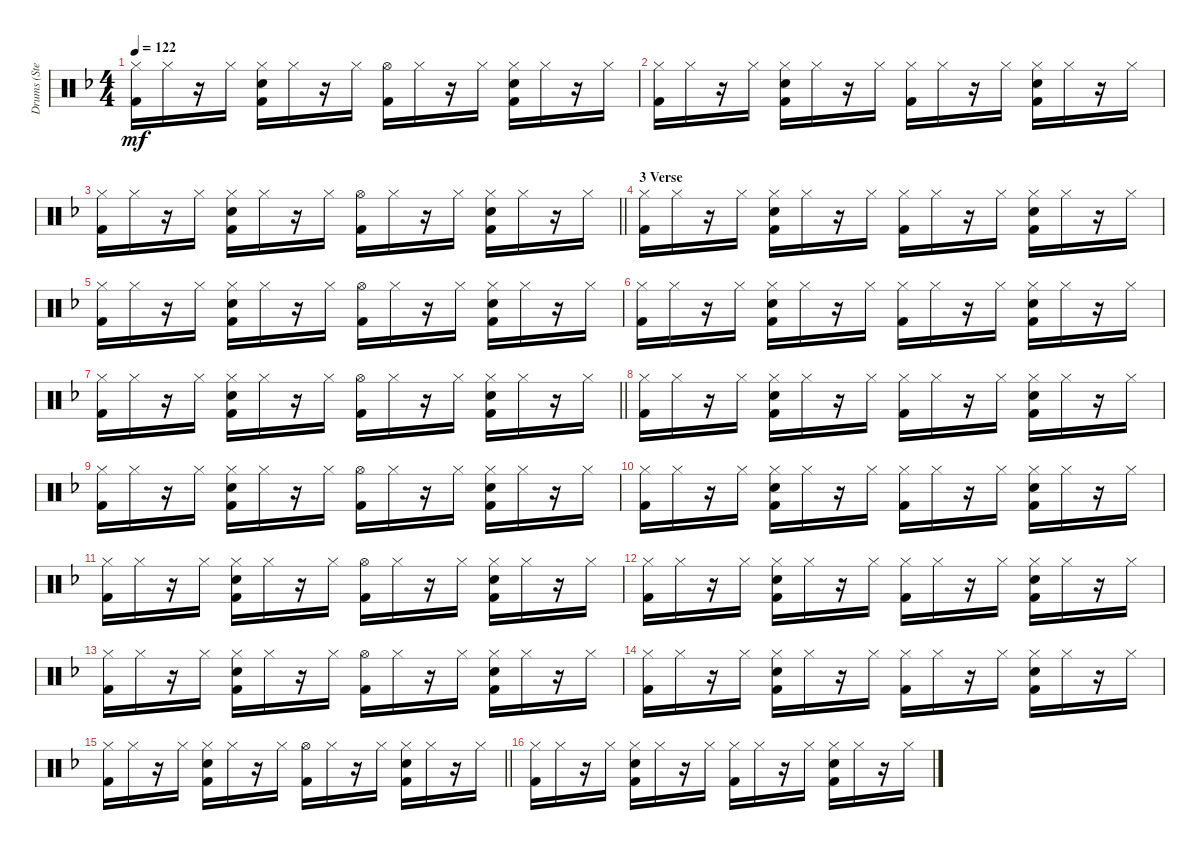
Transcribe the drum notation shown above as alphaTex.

\track ("Drums (Stephen Morris)" "Drums (Ste") {instrument percussion}
\staff {score}
\articulation defaults
\ts (4 4)
\tempo 122
\clef neutral
\ks f
("Kick (hit) 2" "Hi-Hat (closed)").16{dy mf} "Hi-Hat (closed)".16 r.16 "Hi-Hat (closed)".16 ("Hi-Hat (closed)" "Snare (hit) 2" "Kick (hit) 2").16 "Hi-Hat (closed)".16 r.16 "Hi-Hat (closed)".16 ("Kick (hit) 2" "Hi-Hat (open)").16 "Hi-Hat (closed)".16 r.16 "Hi-Hat (closed)".16 ("Hi-Hat (closed)" "Snare (hit) 2" "Kick (hit) 2").16 "Hi-Hat (closed)".16 r.16 "Hi-Hat (closed)".16 |
("Kick (hit) 2" "Hi-Hat (closed)").16 "Hi-Hat (closed)".16 r.16 "Hi-Hat (closed)".16 ("Kick (hit) 2" "Snare (hit) 2" "Hi-Hat (closed)").16 "Hi-Hat (closed)".16 r.16 "Hi-Hat (closed)".16 ("Kick (hit) 2" "Hi-Hat (closed)").16 "Hi-Hat (closed)".16 r.16 "Hi-Hat (closed)".16 ("Hi-Hat (closed)" "Kick (hit) 2" "Snare (hit) 2").16 "Hi-Hat (closed)".16 r.16 "Hi-Hat (closed)".16 |
\barLineRight lightlight
("Kick (hit) 2" "Hi-Hat (closed)").16 "Hi-Hat (closed)".16 r.16 "Hi-Hat (closed)".16 ("Kick (hit) 2" "Snare (hit) 2" "Hi-Hat (closed)").16 "Hi-Hat (closed)".16 r.16 "Hi-Hat (closed)".16 ("Kick (hit) 2" "Hi-Hat (open)").16 "Hi-Hat (closed)".16 r.16 "Hi-Hat (closed)".16 ("Hi-Hat (closed)" "Snare (hit) 2" "Kick (hit) 2").16 "Hi-Hat (closed)".16 r.16 "Hi-Hat (closed)".16 |
\section ("" "3 Verse")
("Hi-Hat (closed)" "Kick (hit) 2").16 "Hi-Hat (closed)".16 r.16 "Hi-Hat (closed)".16 ("Hi-Hat (closed)" "Snare (hit) 2" "Kick (hit) 2").16 "Hi-Hat (closed)".16 r.16 "Hi-Hat (closed)".16 ("Kick (hit) 2" "Hi-Hat (closed)").16 "Hi-Hat (closed)".16 r.16 "Hi-Hat (closed)".16 ("Kick (hit) 2" "Snare (hit) 2" "Hi-Hat (closed)").16 "Hi-Hat (closed)".16 r.16 "Hi-Hat (closed)".16 |
("Hi-Hat (closed)" "Kick (hit) 2").16 "Hi-Hat (closed)".16 r.16 "Hi-Hat (closed)".16 ("Hi-Hat (closed)" "Snare (hit) 2" "Kick (hit) 2").16 "Hi-Hat (closed)".16 r.16 "Hi-Hat (closed)".16 ("Kick (hit) 2" "Hi-Hat (open)").16 "Hi-Hat (closed)".16 r.16 "Hi-Hat (closed)".16 ("Hi-Hat (closed)" "Snare (hit) 2" "Kick (hit) 2").16 "Hi-Hat (closed)".16 r.16 "Hi-Hat (closed)".16 |
("Hi-Hat (closed)" "Kick (hit) 2").16 "Hi-Hat (closed)".16 r.16 "Hi-Hat (closed)".16 ("Hi-Hat (closed)" "Snare (hit) 2" "Kick (hit) 2").16 "Hi-Hat (closed)".16 r.16 "Hi-Hat (closed)".16 ("Kick (hit) 2" "Hi-Hat (closed)").16 "Hi-Hat (closed)".16 r.16 "Hi-Hat (closed)".16 ("Hi-Hat (closed)" "Snare (hit) 2" "Kick (hit) 2").16 "Hi-Hat (closed)".16 r.16 "Hi-Hat (closed)".16 |
\barLineRight lightlight
("Kick (hit) 2" "Hi-Hat (closed)").16 "Hi-Hat (closed)".16 r.16 "Hi-Hat (closed)".16 ("Hi-Hat (closed)" "Snare (hit) 2" "Kick (hit) 2").16 "Hi-Hat (closed)".16 r.16 "Hi-Hat (closed)".16 ("Kick (hit) 2" "Hi-Hat (open)").16 "Hi-Hat (closed)".16 r.16 "Hi-Hat (closed)".16 ("Kick (hit) 2" "Snare (hit) 2" "Hi-Hat (closed)").16 "Hi-Hat (closed)".16 r.16 "Hi-Hat (closed)".16 |
("Kick (hit) 2" "Hi-Hat (closed)").16 "Hi-Hat (closed)".16 r.16 "Hi-Hat (closed)".16 ("Hi-Hat (closed)" "Snare (hit) 2" "Kick (hit) 2").16 "Hi-Hat (closed)".16 r.16 "Hi-Hat (closed)".16 ("Kick (hit) 2" "Hi-Hat (closed)").16 "Hi-Hat (closed)".16 r.16 "Hi-Hat (closed)".16 ("Hi-Hat (closed)" "Snare (hit) 2" "Kick (hit) 2").16 "Hi-Hat (closed)".16 r.16 "Hi-Hat (closed)".16 |
("Kick (hit) 2" "Hi-Hat (closed)").16 "Hi-Hat (closed)".16 r.16 "Hi-Hat (closed)".16 ("Hi-Hat (closed)" "Snare (hit) 2" "Kick (hit) 2").16 "Hi-Hat (closed)".16 r.16 "Hi-Hat (closed)".16 ("Kick (hit) 2" "Hi-Hat (open)").16 "Hi-Hat (closed)".16 r.16 "Hi-Hat (closed)".16 ("Hi-Hat (closed)" "Snare (hit) 2" "Kick (hit) 2").16 "Hi-Hat (closed)".16 r.16 "Hi-Hat (closed)".16 |
("Hi-Hat (closed)" "Kick (hit) 2").16 "Hi-Hat (closed)".16 r.16 "Hi-Hat (closed)".16 ("Hi-Hat (closed)" "Snare (hit) 2" "Kick (hit) 2").16 "Hi-Hat (closed)".16 r.16 "Hi-Hat (closed)".16 ("Kick (hit) 2" "Hi-Hat (closed)").16 "Hi-Hat (closed)".16 r.16 "Hi-Hat (closed)".16 ("Hi-Hat (closed)" "Snare (hit) 2" "Kick (hit) 2").16 "Hi-Hat (closed)".16 r.16 "Hi-Hat (closed)".16 |
("Kick (hit) 2" "Hi-Hat (closed)").16 "Hi-Hat (closed)".16 r.16 "Hi-Hat (closed)".16 ("Hi-Hat (closed)" "Snare (hit) 2" "Kick (hit) 2").16 "Hi-Hat (closed)".16 r.16 "Hi-Hat (closed)".16 ("Kick (hit) 2" "Hi-Hat (open)").16 "Hi-Hat (closed)".16 r.16 "Hi-Hat (closed)".16 ("Kick (hit) 2" "Snare (hit) 2" "Hi-Hat (closed)").16 "Hi-Hat (closed)".16 r.16 "Hi-Hat (closed)".16 |
("Kick (hit) 2" "Hi-Hat (closed)").16 "Hi-Hat (closed)".16 r.16 "Hi-Hat (closed)".16 ("Hi-Hat (closed)" "Snare (hit) 2" "Kick (hit) 2").16 "Hi-Hat (closed)".16 r.16 "Hi-Hat (closed)".16 ("Kick (hit) 2" "Hi-Hat (closed)").16 "Hi-Hat (closed)".16 r.16 "Hi-Hat (closed)".16 ("Kick (hit) 2" "Snare (hit) 2" "Hi-Hat (closed)").16 "Hi-Hat (closed)".16 r.16 "Hi-Hat (closed)".16 |
("Kick (hit) 2" "Hi-Hat (closed)").16 "Hi-Hat (closed)".16 r.16 "Hi-Hat (closed)".16 ("Hi-Hat (closed)" "Snare (hit) 2" "Kick (hit) 2").16 "Hi-Hat (closed)".16 r.16 "Hi-Hat (closed)".16 ("Hi-Hat (open)" "Kick (hit) 2").16 "Hi-Hat (closed)".16 r.16 "Hi-Hat (closed)".16 ("Hi-Hat (closed)" "Snare (hit) 2" "Kick (hit) 2").16 "Hi-Hat (closed)".16 r.16 "Hi-Hat (closed)".16 |
("Kick (hit) 2" "Hi-Hat (closed)").16 "Hi-Hat (closed)".16 r.16 "Hi-Hat (closed)".16 ("Kick (hit) 2" "Snare (hit) 2" "Hi-Hat (closed)").16 "Hi-Hat (closed)".16 r.16 "Hi-Hat (closed)".16 ("Hi-Hat (closed)" "Kick (hit) 2").16 "Hi-Hat (closed)".16 r.16 "Hi-Hat (closed)".16 ("Hi-Hat (closed)" "Kick (hit) 2" "Snare (hit) 2").16 "Hi-Hat (closed)".16 r.16 "Hi-Hat (closed)".16 |
\barLineRight lightlight
("Kick (hit) 2" "Hi-Hat (closed)").16 "Hi-Hat (closed)".16 r.16 "Hi-Hat (closed)".16 ("Hi-Hat (closed)" "Snare (hit) 2" "Kick (hit) 2").16 "Hi-Hat (closed)".16 r.16 "Hi-Hat (closed)".16 ("Hi-Hat (open)" "Kick (hit) 2").16 "Hi-Hat (closed)".16 r.16 "Hi-Hat (closed)".16 ("Hi-Hat (closed)" "Snare (hit) 2" "Kick (hit) 2").16 "Hi-Hat (closed)".16 r.16 "Hi-Hat (closed)".16 |
("Kick (hit) 2" "Hi-Hat (closed)").16 "Hi-Hat (closed)".16 r.16 "Hi-Hat (closed)".16 ("Snare (hit) 2" "Kick (hit) 2" "Hi-Hat (closed)").16 "Hi-Hat (closed)".16 r.16 "Hi-Hat (closed)".16 ("Kick (hit) 2" "Hi-Hat (closed)").16 "Hi-Hat (closed)".16 r.16 "Hi-Hat (closed)".16 ("Hi-Hat (closed)" "Snare (hit) 2" "Kick (hit) 2").16 "Hi-Hat (closed)".16 r.16 "Hi-Hat (closed)".16
